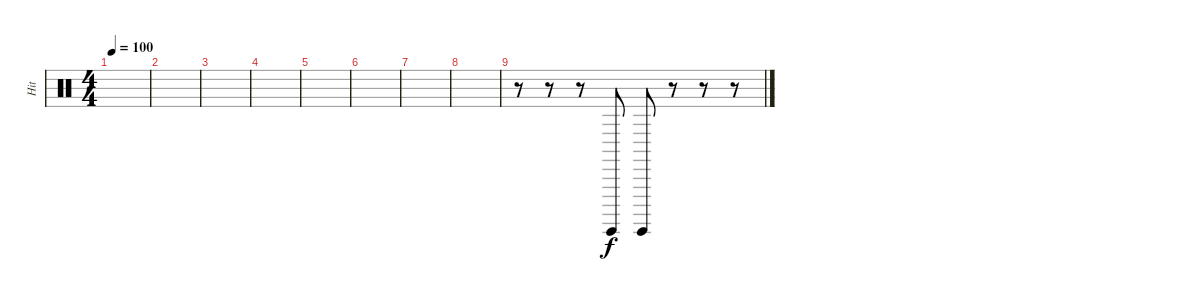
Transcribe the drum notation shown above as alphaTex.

\track ("Hit" "Hit") {instrument percussion}
\staff {score}
\articulation defaults
\ts (4 4)
\tempo 100
\clef neutral
\ks c
|
|
|
|
|
|
|
|
r.8 r.8 r.8 "Surdo (hit)".8 "Surdo (hit)".8 r.8 r.8 r.8
